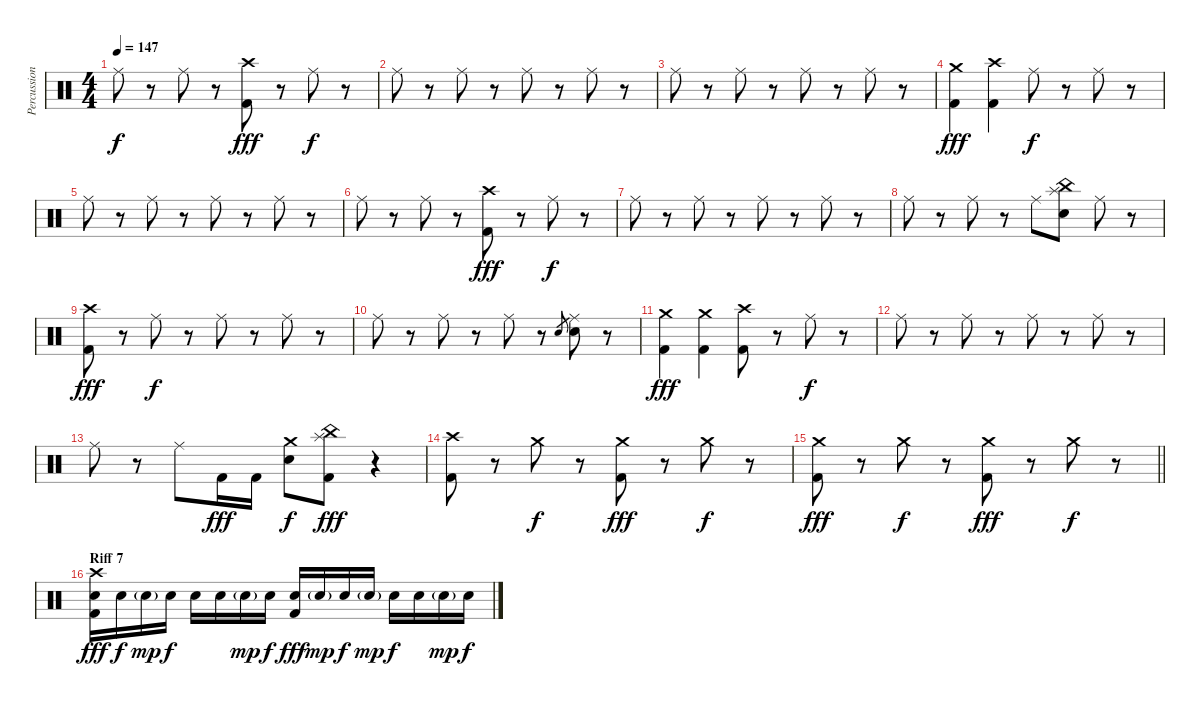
\track ("Percussion" "Percussion") {instrument percussion}
\staff {score}
\articulation defaults
\ts (4 4)
\tempo 147
\clef neutral
\ks c "Ride (middle)".8{dy f}
r.8 "Ride (middle)".8 r.8 ("Crash high (hit)" "Kick (hit) 2").8{dy fff} r.8 "Ride (middle)".8{dy f} r.8 |
"Ride (middle)".8 r.8 "Ride (middle)".8 r.8 "Ride (middle)".8 r.8 "Ride (middle)".8 r.8 |
"Ride (middle)".8 r.8 "Ride (middle)".8 r.8 "Ride (middle)".8 r.8 "Ride (middle)".8 r.8 |
("Crash medium (hit)" "Kick (hit) 2").4{dy fff} ("Crash high (hit)" "Kick (hit) 2").4 "Ride (middle)".8{dy f} r.8 "Ride (middle)".8 r.8 |
"Ride (middle)".8 r.8 "Ride (middle)".8 r.8 "Ride (middle)".8 r.8 "Ride (middle)".8 r.8 |
"Ride (middle)".8 r.8 "Ride (middle)".8 r.8 ("Crash high (hit)" "Kick (hit) 2").8{dy fff} r.8 "Ride (middle)".8{dy f} r.8 |
"Ride (middle)".8 r.8 "Ride (middle)".8 r.8 "Ride (middle)".8 r.8 "Ride (middle)".8 r.8 |
"Ride (middle)".8 r.8 "Ride (middle)".8 r.8 "Ride (middle)".8 ("Splash (hit)" "China (hit)" "Electric Snare (hit)").8 "Ride (middle)".8 r.8 |
("Crash high (hit)" "Kick (hit) 2").8{dy fff} r.8 "Ride (middle)".8{dy f} r.8 "Ride (middle)".8 r.8 "Ride (middle)".8 r.8 |
"Ride (middle)".8 r.8 "Ride (middle)".8 r.8 "Ride (middle)".8 r.8 "Electric Snare (hit)".8{gr} ("Ride (middle)" "Electric Snare (hit)").8 r.8 |
("Crash medium (hit)" "Kick (hit) 2").4{dy fff} ("Crash medium (hit)" "Kick (hit) 2").4 ("Crash high (hit)" "Kick (hit) 2").8 r.8 "Ride (middle)".8{dy f} r.8 |
"Ride (middle)".8 r.8 "Ride (middle)".8 r.8 "Ride (middle)".8 r.8 "Ride (middle)".8 r.8 |
"Ride (middle)".8 r.8 "Ride (middle)".8 "Kick (hit) 2".16{dy fff} "Kick (hit) 2".16 ("Crash medium (hit)" "Electric Snare (hit)").8{dy f} ("Splash (hit)" "China (hit)" "Kick (hit) 2").8{dy fff} r.4 |
("Crash high (hit)" "Kick (hit) 2").8 r.8 "Crash medium (hit)".8{dy f} r.8 ("Crash medium (hit)" "Kick (hit) 2").8{dy fff} r.8 "Crash medium (hit)".8{dy f} r.8 |
\barLineRight lightlight
("Crash medium (hit)" "Kick (hit) 2").8{dy fff} r.8 "Crash medium (hit)".8{dy f} r.8 ("Crash medium (hit)" "Kick (hit) 2").8{dy fff} r.8 "Crash medium (hit)".8{dy f} r.8 |
\section ("" "Riff 7")
("Crash high (hit)" "Electric Snare (hit)" "Kick (hit) 2").16{dy fff} "Electric Snare (hit)".16{dy f} "Electric Snare (hit)"{g}.16{dy mp} "Electric Snare (hit)".16{dy f} "Electric Snare (hit)".16 "Electric Snare (hit)".16 "Electric Snare (hit)"{g}.16{dy mp} "Electric Snare (hit)".16{dy f} ("Electric Snare (hit)" "Kick (hit) 2").16{dy fff} "Electric Snare (hit)"{g}.16{dy mp} "Electric Snare (hit)".16{dy f} "Electric Snare (hit)"{g}.16{dy mp} "Electric Snare (hit)".16{dy f} "Electric Snare (hit)".16 "Electric Snare (hit)"{g}.16{dy mp} "Electric Snare (hit)".16{dy f}
